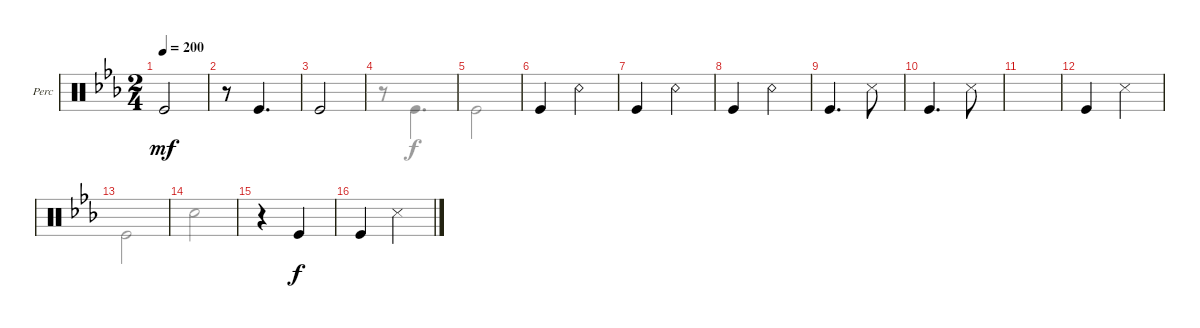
\defaultSystemsLayout 4
\bracketExtendMode groupsimilarinstruments
\firstSystemTrackNameOrientation horizontal
\otherSystemsTrackNameOrientation horizontal
\track ("Body Percussion" "Perc") {instrument percussion}
\staff {score}
\articulation defaults
\voice
\ts (2 4)
\tempo 200
\clef neutral
\ks cminor "Kick (hit)".2{dy mf}
|
r.8 "Kick (hit)".4{d} |
"Kick (hit)".2 |
|
|
"Kick (hit)".4 "Snare (rim shot)".4 |
"Kick (hit)".4 "Snare (rim shot)".4 |
"Kick (hit)".4 "Snare (rim shot)".4 |
"Kick (hit)".4{d} "Snare (side stick) 3".8 |
"Kick (hit)".4{d} "Snare (side stick) 3".8 |
|
"Kick (hit)".4 "Snare (side stick) 3".4 |
|
|
r.4 "Kick (hit)".4{dy f} |
"Kick (hit)".4 "Snare (side stick) 3".4
\voice
\clef neutral
\ottava regular
\simile none
\ks cminor
|
|
|
r.8 "Kick (hit)".4{d} |
"Kick (hit)".2 |
|
|
|
|
|
|
|
"Kick (hit)".2{dy f} |
"Snare (hit) 2".2 |
|
